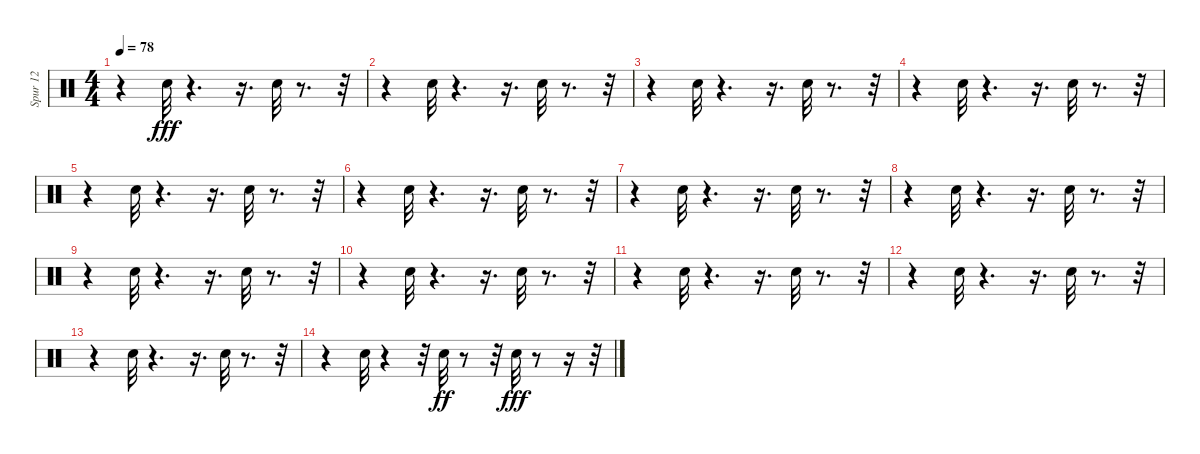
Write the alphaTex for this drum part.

\track ("Spur 12" "Spur 12") {instrument percussion}
\staff {score}
\articulation defaults
\ts (4 4)
\tempo 78
\clef neutral
\ks c
r.4{dy fff} "Electric Snare (hit)".32 r.4{d} r.16{d} "Electric Snare (hit)".32 r.8{d} r.32 |
r.4 "Electric Snare (hit)".32 r.4{d} r.16{d} "Electric Snare (hit)".32 r.8{d} r.32 |
r.4 "Electric Snare (hit)".32 r.4{d} r.16{d} "Electric Snare (hit)".32 r.8{d} r.32 |
r.4 "Electric Snare (hit)".32 r.4{d} r.16{d} "Electric Snare (hit)".32 r.8{d} r.32 |
r.4 "Electric Snare (hit)".32 r.4{d} r.16{d} "Electric Snare (hit)".32 r.8{d} r.32 |
r.4 "Electric Snare (hit)".32 r.4{d} r.16{d} "Electric Snare (hit)".32 r.8{d} r.32 |
r.4 "Electric Snare (hit)".32 r.4{d} r.16{d} "Electric Snare (hit)".32 r.8{d} r.32 |
r.4 "Electric Snare (hit)".32 r.4{d} r.16{d} "Electric Snare (hit)".32 r.8{d} r.32 |
r.4 "Electric Snare (hit)".32 r.4{d} r.16{d} "Electric Snare (hit)".32 r.8{d} r.32 |
r.4 "Electric Snare (hit)".32 r.4{d} r.16{d} "Electric Snare (hit)".32 r.8{d} r.32 |
r.4 "Electric Snare (hit)".32 r.4{d} r.16{d} "Electric Snare (hit)".32 r.8{d} r.32 |
r.4 "Electric Snare (hit)".32 r.4{d} r.16{d} "Electric Snare (hit)".32 r.8{d} r.32 |
r.4 "Electric Snare (hit)".32 r.4{d} r.16{d} "Electric Snare (hit)".32 r.8{d} r.32 |
r.4 "Electric Snare (hit)".32 r.4 r.32 "Electric Snare (hit)".32{dy ff} r.8 r.32 "Electric Snare (hit)".32{dy fff} r.8 r.16 r.32
